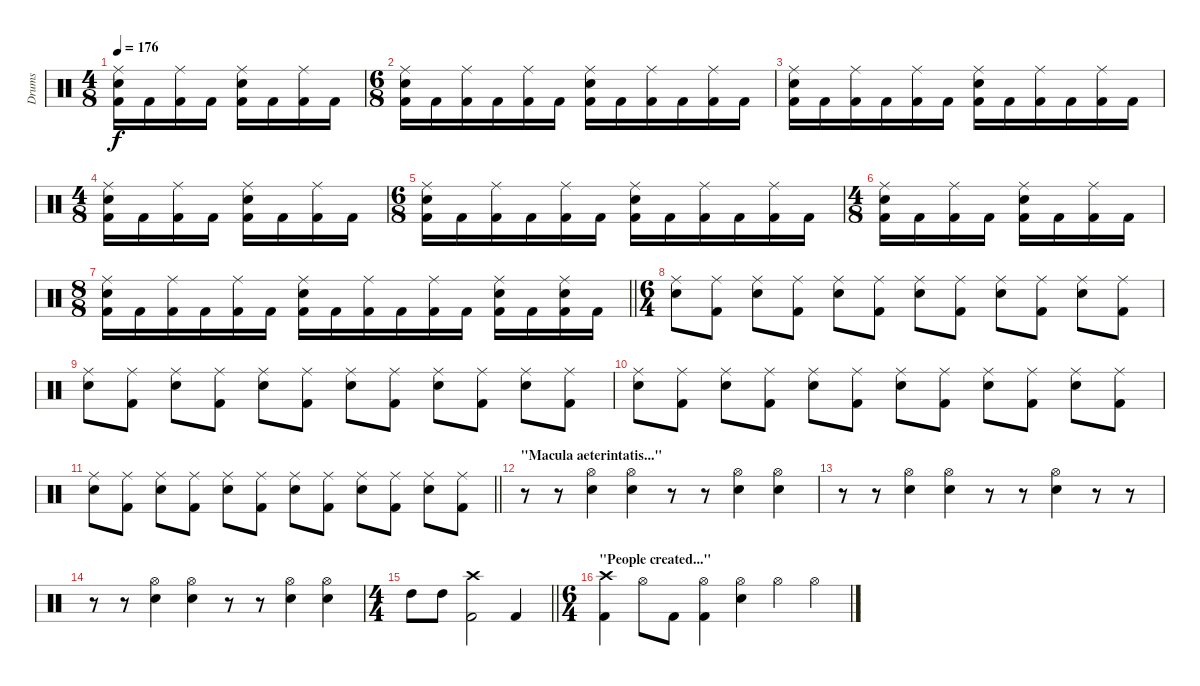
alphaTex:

\track ("Drums" "Drums") {instrument percussion}
\staff {score}
\articulation defaults
\ts (4 8)
\tempo 176
\clef neutral
\ks c
("Ride (middle)" "Snare (hit) 2" "Kick (hit) 2").16{dy f} "Kick (hit) 2".16 ("Ride (middle)" "Kick (hit) 2").16 "Kick (hit) 2".16 ("Ride (middle)" "Snare (hit) 2" "Kick (hit) 2").16 "Kick (hit) 2".16 ("Ride (middle)" "Kick (hit) 2").16 "Kick (hit) 2".16 |
\ts (6 8)
("Ride (middle)" "Snare (hit) 2" "Kick (hit) 2").16 "Kick (hit) 2".16 ("Ride (middle)" "Kick (hit) 2").16 "Kick (hit) 2".16 ("Ride (middle)" "Kick (hit) 2").16 "Kick (hit) 2".16 ("Ride (middle)" "Snare (hit) 2" "Kick (hit) 2").16 "Kick (hit) 2".16 ("Ride (middle)" "Kick (hit) 2").16 "Kick (hit) 2".16 ("Ride (middle)" "Kick (hit) 2").16 "Kick (hit) 2".16 |
("Ride (middle)" "Snare (hit) 2" "Kick (hit) 2").16 "Kick (hit) 2".16 ("Ride (middle)" "Kick (hit) 2").16 "Kick (hit) 2".16 ("Ride (middle)" "Kick (hit) 2").16 "Kick (hit) 2".16 ("Ride (middle)" "Snare (hit) 2" "Kick (hit) 2").16 "Kick (hit) 2".16 ("Ride (middle)" "Kick (hit) 2").16 "Kick (hit) 2".16 ("Ride (middle)" "Kick (hit) 2").16 "Kick (hit) 2".16 |
\ts (4 8)
("Ride (middle)" "Snare (hit) 2" "Kick (hit) 2").16 "Kick (hit) 2".16 ("Ride (middle)" "Kick (hit) 2").16 "Kick (hit) 2".16 ("Ride (middle)" "Snare (hit) 2" "Kick (hit) 2").16 "Kick (hit) 2".16 ("Ride (middle)" "Kick (hit) 2").16 "Kick (hit) 2".16 |
\ts (6 8)
("Ride (middle)" "Snare (hit) 2" "Kick (hit) 2").16 "Kick (hit) 2".16 ("Ride (middle)" "Kick (hit) 2").16 "Kick (hit) 2".16 ("Ride (middle)" "Kick (hit) 2").16 "Kick (hit) 2".16 ("Ride (middle)" "Snare (hit) 2" "Kick (hit) 2").16 "Kick (hit) 2".16 ("Ride (middle)" "Kick (hit) 2").16 "Kick (hit) 2".16 ("Ride (middle)" "Kick (hit) 2").16 "Kick (hit) 2".16 |
\ts (4 8)
("Ride (middle)" "Snare (hit) 2" "Kick (hit) 2").16 "Kick (hit) 2".16 ("Ride (middle)" "Kick (hit) 2").16 "Kick (hit) 2".16 ("Ride (middle)" "Snare (hit) 2" "Kick (hit) 2").16 "Kick (hit) 2".16 ("Ride (middle)" "Kick (hit) 2").16 "Kick (hit) 2".16 |
\ts (8 8)
\barLineRight lightlight
("Ride (middle)" "Snare (hit) 2" "Kick (hit) 2").16 "Kick (hit) 2".16 ("Ride (middle)" "Kick (hit) 2").16 "Kick (hit) 2".16 ("Ride (middle)" "Kick (hit) 2").16 "Kick (hit) 2".16 ("Ride (middle)" "Snare (hit) 2" "Kick (hit) 2").16 "Kick (hit) 2".16 ("Ride (middle)" "Kick (hit) 2").16 "Kick (hit) 2".16 ("Ride (middle)" "Kick (hit) 2").16 "Kick (hit) 2".16 ("Ride (middle)" "Snare (hit) 2" "Kick (hit) 2").16 "Kick (hit) 2".16 ("Ride (middle)" "Snare (hit) 2" "Kick (hit) 2").16 "Kick (hit) 2".16 |
\ts (6 4)
\section ("" "")
("Ride (middle)" "Snare (hit) 2").8 ("Ride (middle)" "Kick (hit) 2").8 ("Ride (middle)" "Snare (hit) 2").8 ("Ride (middle)" "Kick (hit) 2").8 ("Ride (middle)" "Snare (hit) 2").8 ("Ride (middle)" "Kick (hit) 2").8 ("Ride (middle)" "Snare (hit) 2").8 ("Ride (middle)" "Kick (hit) 2").8 ("Ride (middle)" "Snare (hit) 2").8 ("Ride (middle)" "Kick (hit) 2").8 ("Ride (middle)" "Snare (hit) 2").8 ("Ride (middle)" "Kick (hit) 2").8 |
("Ride (middle)" "Snare (hit) 2").8 ("Ride (middle)" "Kick (hit) 2").8 ("Ride (middle)" "Snare (hit) 2").8 ("Ride (middle)" "Kick (hit) 2").8 ("Ride (middle)" "Snare (hit) 2").8 ("Ride (middle)" "Kick (hit) 2").8 ("Ride (middle)" "Snare (hit) 2").8 ("Ride (middle)" "Kick (hit) 2").8 ("Ride (middle)" "Snare (hit) 2").8 ("Ride (middle)" "Kick (hit) 2").8 ("Ride (middle)" "Snare (hit) 2").8 ("Ride (middle)" "Kick (hit) 2").8 |
("Ride (middle)" "Snare (hit) 2").8 ("Ride (middle)" "Kick (hit) 2").8 ("Ride (middle)" "Snare (hit) 2").8 ("Ride (middle)" "Kick (hit) 2").8 ("Ride (middle)" "Snare (hit) 2").8 ("Ride (middle)" "Kick (hit) 2").8 ("Ride (middle)" "Snare (hit) 2").8 ("Ride (middle)" "Kick (hit) 2").8 ("Ride (middle)" "Snare (hit) 2").8 ("Ride (middle)" "Kick (hit) 2").8 ("Ride (middle)" "Snare (hit) 2").8 ("Ride (middle)" "Kick (hit) 2").8 |
\barLineRight lightlight
("Ride (middle)" "Snare (hit) 2").8 ("Ride (middle)" "Kick (hit) 2").8 ("Ride (middle)" "Snare (hit) 2").8 ("Ride (middle)" "Kick (hit) 2").8 ("Ride (middle)" "Snare (hit) 2").8 ("Ride (middle)" "Kick (hit) 2").8 ("Ride (middle)" "Snare (hit) 2").8 ("Ride (middle)" "Kick (hit) 2").8 ("Ride (middle)" "Snare (hit) 2").8 ("Ride (middle)" "Kick (hit) 2").8 ("Ride (middle)" "Snare (hit) 2").8 ("Ride (middle)" "Kick (hit) 2").8 |
\section ("" "\"Macula aeterintatis...\"")
r.8 r.8 ("Hi-Hat (open)" "Snare (hit) 2").4 ("Hi-Hat (open)" "Snare (hit) 2").4 r.8 r.8 ("Hi-Hat (open)" "Snare (hit) 2").4 ("Hi-Hat (open)" "Snare (hit) 2").4 |
r.8 r.8 ("Hi-Hat (open)" "Snare (hit) 2").4 ("Hi-Hat (open)" "Snare (hit) 2").4 r.8 r.8 ("Hi-Hat (open)" "Snare (hit) 2").4 r.8 r.8 |
r.8 r.8 ("Hi-Hat (open)" "Snare (hit) 2").4 ("Hi-Hat (open)" "Snare (hit) 2").4 r.8 r.8 ("Hi-Hat (open)" "Electric Snare (hit)").4 ("Hi-Hat (open)" "Electric Snare (hit)").4 |
\ts (4 4)
\barLineRight lightlight "High Tom (hit)".8 "High Tom (hit)".8
("Crash high (hit)" "Kick (hit) 2").2 "Kick (hit) 2".4 |
\ts (6 4)
\section ("" "\"People created...\"")
("Crash high (hit)" "Kick (hit) 2").4 "Hi-Hat (open)".8 "Kick (hit) 2".8 ("Hi-Hat (open)" "Kick (hit) 2").4 ("Hi-Hat (open)" "Snare (hit) 2").4 "Hi-Hat (open)".4 "Hi-Hat (open)".4
